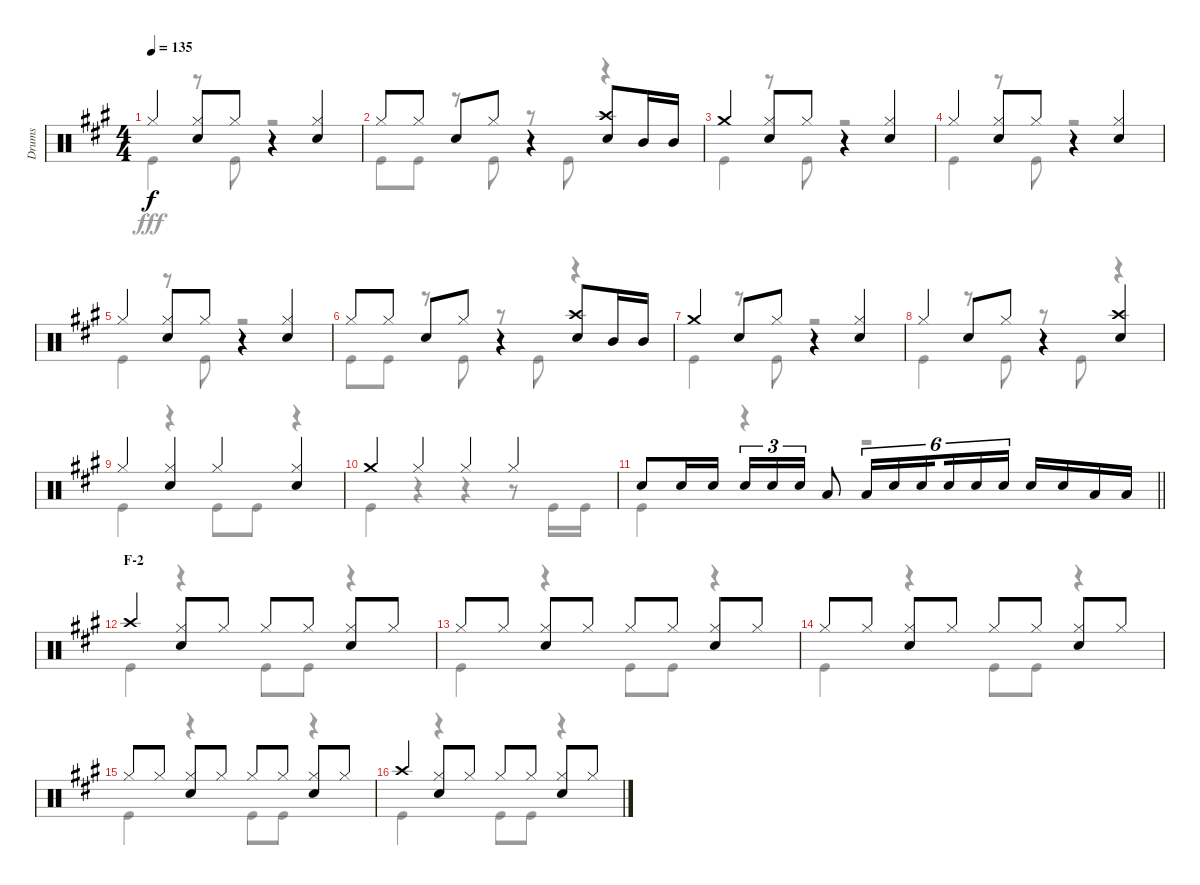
\track ("Drums" "Drums") {instrument percussion}
\staff {score}
\articulation defaults
\voice
\ts (4 4)
\tempo 135
\clef neutral
\ks a "Hi-Hat (closed)".4{dy f}
("Hi-Hat (closed)" "Snare (hit) 2").8 "Hi-Hat (closed)".8 r.4 ("Hi-Hat (closed)" "Snare (hit) 2").4 |
"Hi-Hat (closed)".8 "Hi-Hat (closed)".8 "Snare (hit) 2".8 "Hi-Hat (closed)".8 r.4 ("Crash high (hit)" "Snare (hit) 2").8 "Mid Tom (hit)".16 "Mid Tom (hit)".16 |
"Crash medium (hit)".4 ("Hi-Hat (closed)" "Snare (hit) 2").8 "Hi-Hat (closed)".8 r.4 ("Hi-Hat (closed)" "Snare (hit) 2").4 |
"Hi-Hat (closed)".4 ("Hi-Hat (closed)" "Snare (hit) 2").8 "Hi-Hat (closed)".8 r.4 ("Hi-Hat (closed)" "Snare (hit) 2").4 |
"Hi-Hat (closed)".4 ("Hi-Hat (closed)" "Snare (hit) 2").8 "Hi-Hat (closed)".8 r.4 ("Hi-Hat (closed)" "Snare (hit) 2").4 |
"Hi-Hat (closed)".8 "Hi-Hat (closed)".8 "Snare (hit) 2".8 "Hi-Hat (closed)".8 r.4 ("Crash high (hit)" "Snare (hit) 2").8 "Mid Tom (hit)".16 "Mid Tom (hit)".16 |
"Crash medium (hit)".4 "Snare (hit) 2".8 "Hi-Hat (closed)".8 r.4 ("Hi-Hat (closed)" "Snare (hit) 2").4 |
"Hi-Hat (closed)".4 "Snare (hit) 2".8 "Hi-Hat (closed)".8 r.4 ("Crash high (hit)" "Snare (hit) 2").4 |
"Hi-Hat (closed)".4 ("Hi-Hat (closed)" "Snare (hit) 2").4 "Hi-Hat (closed)".4 ("Hi-Hat (closed)" "Snare (hit) 2").4 |
"Crash medium (hit)".4 "Hi-Hat (closed)".4 "Hi-Hat (closed)".4 "Hi-Hat (closed)".4 |
\barLineRight lightlight "Snare (hit) 2".8 "Snare (hit) 2".16 "Snare (hit) 2".16 "Snare (hit) 2".16{tu (3 2)} "Snare (hit) 2".16{tu (3 2)} "Snare (hit) 2".16{tu (3 2)} "Low Tom (hit)".8 "Low Tom (hit)".16{tu (6 4)} "Snare (hit) 2".16{tu (6 4)} "Snare (hit) 2".16{tu (6 4) beam splitsecondary} "Snare (hit) 2".16{tu (6 4)} "Snare (hit) 2".16{tu (6 4)} "Snare (hit) 2".16{tu (6 4)} "Snare (hit) 2".16 "Snare (hit) 2".16 "Low Tom (hit)".16 "Low Tom (hit)".16
|
\section ("" "F-2")
"Crash high (hit)".4 ("Hi-Hat (closed)" "Snare (hit) 2").8 "Hi-Hat (closed)".8 "Hi-Hat (closed)".8 "Hi-Hat (closed)".8 ("Hi-Hat (closed)" "Snare (hit) 2").8 "Hi-Hat (closed)".8 |
"Hi-Hat (closed)".8 "Hi-Hat (closed)".8 ("Hi-Hat (closed)" "Snare (hit) 2").8 "Hi-Hat (closed)".8 "Hi-Hat (closed)".8 "Hi-Hat (closed)".8 ("Hi-Hat (closed)" "Snare (hit) 2").8 "Hi-Hat (closed)".8 |
"Hi-Hat (closed)".8 "Hi-Hat (closed)".8 ("Hi-Hat (closed)" "Snare (hit) 2").8 "Hi-Hat (closed)".8 "Hi-Hat (closed)".8 "Hi-Hat (closed)".8 ("Hi-Hat (closed)" "Snare (hit) 2").8 "Hi-Hat (closed)".8 |
"Hi-Hat (closed)".8 "Hi-Hat (closed)".8 ("Hi-Hat (closed)" "Snare (hit) 2").8 "Hi-Hat (closed)".8 "Hi-Hat (closed)".8 "Hi-Hat (closed)".8 ("Hi-Hat (closed)" "Snare (hit) 2").8 "Hi-Hat (closed)".8 |
"Crash high (hit)".4 ("Hi-Hat (closed)" "Snare (hit) 2").8 "Hi-Hat (closed)".8 "Hi-Hat (closed)".8 "Hi-Hat (closed)".8 ("Hi-Hat (closed)" "Snare (hit) 2").8 "Hi-Hat (closed)".8
\voice
\clef neutral
\ottava regular
\simile none
\ks a "Kick (hit)".4{dy fff}
r.8 "Kick (hit)".8 r.2 |
"Kick (hit)".8 "Kick (hit)".8 r.8 "Kick (hit)".8 r.8 "Kick (hit)".8 r.4 |
"Kick (hit)".4 r.8 "Kick (hit)".8 r.2 |
"Kick (hit)".4 r.8 "Kick (hit)".8 r.2 |
"Kick (hit)".4 r.8 "Kick (hit)".8 r.2 |
"Kick (hit)".8 "Kick (hit)".8 r.8 "Kick (hit)".8 r.8 "Kick (hit)".8 r.4 |
"Kick (hit)".4 r.8 "Kick (hit)".8 r.2 |
"Kick (hit)".4 r.8 "Kick (hit)".8 r.8 "Kick (hit)".8 r.4 |
"Kick (hit)".4 r.4 "Kick (hit)".8 "Kick (hit)".8 r.4 |
"Kick (hit)".4 r.4 r.4 r.8 "Kick (hit)".16 "Kick (hit)".16 |
\barLineRight lightlight "Kick (hit)".4
r.4 r.2 |
"Kick (hit)".4 r.4 "Kick (hit)".8 "Kick (hit)".8 r.4 |
"Kick (hit)".4 r.4 "Kick (hit)".8 "Kick (hit)".8 r.4 |
"Kick (hit)".4 r.4 "Kick (hit)".8 "Kick (hit)".8 r.4 |
"Kick (hit)".4 r.4 "Kick (hit)".8 "Kick (hit)".8 r.4 |
"Kick (hit)".4 r.4 "Kick (hit)".8 "Kick (hit)".8 r.4
